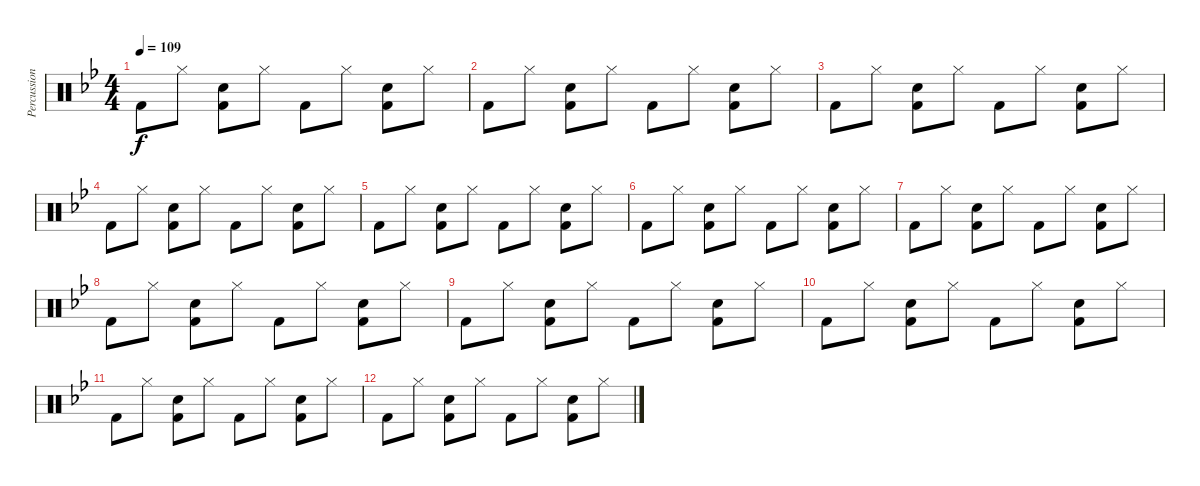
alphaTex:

\track ("Percussions" "Percussion") {instrument percussion}
\staff {score}
\articulation defaults
\ts (4 4)
\tempo 109
\clef neutral
\ks bb "Kick (hit) 2".8{dy f} "Hi-Hat (closed)".8
("Snare (hit) 2" "Kick (hit) 2").8 "Hi-Hat (closed)".8 "Kick (hit) 2".8 "Hi-Hat (closed)".8 ("Snare (hit) 2" "Kick (hit) 2").8 "Hi-Hat (closed)".8 |
"Kick (hit) 2".8 "Hi-Hat (closed)".8 ("Snare (hit) 2" "Kick (hit) 2").8 "Hi-Hat (closed)".8 "Kick (hit) 2".8 "Hi-Hat (closed)".8 ("Snare (hit) 2" "Kick (hit) 2").8 "Hi-Hat (closed)".8 |
"Kick (hit) 2".8 "Hi-Hat (closed)".8 ("Snare (hit) 2" "Kick (hit) 2").8 "Hi-Hat (closed)".8 "Kick (hit) 2".8 "Hi-Hat (closed)".8 ("Snare (hit) 2" "Kick (hit) 2").8 "Hi-Hat (closed)".8 |
"Kick (hit) 2".8 "Hi-Hat (closed)".8 ("Snare (hit) 2" "Kick (hit) 2").8 "Hi-Hat (closed)".8 "Kick (hit) 2".8 "Hi-Hat (closed)".8 ("Snare (hit) 2" "Kick (hit) 2").8 "Hi-Hat (closed)".8 |
"Kick (hit) 2".8 "Hi-Hat (closed)".8 ("Snare (hit) 2" "Kick (hit) 2").8 "Hi-Hat (closed)".8 "Kick (hit) 2".8 "Hi-Hat (closed)".8 ("Snare (hit) 2" "Kick (hit) 2").8 "Hi-Hat (closed)".8 |
"Kick (hit) 2".8 "Hi-Hat (closed)".8 ("Snare (hit) 2" "Kick (hit) 2").8 "Hi-Hat (closed)".8 "Kick (hit) 2".8 "Hi-Hat (closed)".8 ("Snare (hit) 2" "Kick (hit) 2").8 "Hi-Hat (closed)".8 |
"Kick (hit) 2".8 "Hi-Hat (closed)".8 ("Snare (hit) 2" "Kick (hit) 2").8 "Hi-Hat (closed)".8 "Kick (hit) 2".8 "Hi-Hat (closed)".8 ("Snare (hit) 2" "Kick (hit) 2").8 "Hi-Hat (closed)".8 |
"Kick (hit) 2".8 "Hi-Hat (closed)".8 ("Snare (hit) 2" "Kick (hit) 2").8 "Hi-Hat (closed)".8 "Kick (hit) 2".8 "Hi-Hat (closed)".8 ("Snare (hit) 2" "Kick (hit) 2").8 "Hi-Hat (closed)".8 |
"Kick (hit) 2".8 "Hi-Hat (closed)".8 ("Snare (hit) 2" "Kick (hit) 2").8 "Hi-Hat (closed)".8 "Kick (hit) 2".8 "Hi-Hat (closed)".8 ("Snare (hit) 2" "Kick (hit) 2").8 "Hi-Hat (closed)".8 |
"Kick (hit) 2".8 "Hi-Hat (closed)".8 ("Snare (hit) 2" "Kick (hit) 2").8 "Hi-Hat (closed)".8 "Kick (hit) 2".8 "Hi-Hat (closed)".8 ("Snare (hit) 2" "Kick (hit) 2").8 "Hi-Hat (closed)".8 |
"Kick (hit) 2".8 "Hi-Hat (closed)".8 ("Snare (hit) 2" "Kick (hit) 2").8 "Hi-Hat (closed)".8 "Kick (hit) 2".8 "Hi-Hat (closed)".8 ("Snare (hit) 2" "Kick (hit) 2").8 "Hi-Hat (closed)".8 |
"Kick (hit) 2".8 "Hi-Hat (closed)".8 ("Snare (hit) 2" "Kick (hit) 2").8 "Hi-Hat (closed)".8 "Kick (hit) 2".8 "Hi-Hat (closed)".8 ("Snare (hit) 2" "Kick (hit) 2").8 "Hi-Hat (closed)".8
